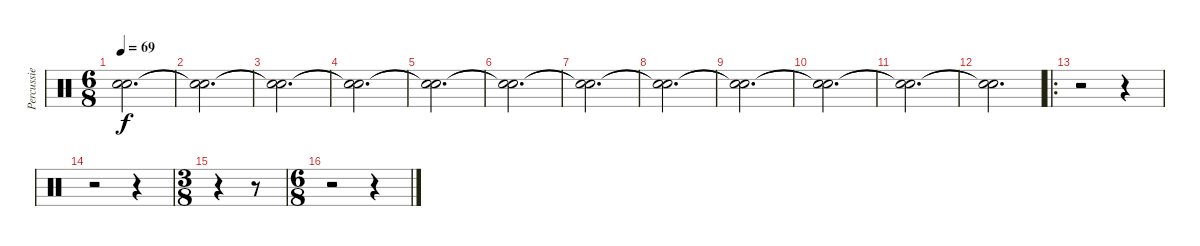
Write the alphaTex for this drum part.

\track ("Percussie" "Percussie") {instrument percussion}
\staff {score}
\articulation defaults
\ts (6 8)
\tempo 69
\clef neutral
\ks c
("Snare (hit)"{t} "Snare (hit)"{t}).2{d dy f} |
("Snare (hit)"{t} "Snare (hit)"{t}).2{d} |
("Snare (hit)"{t} "Snare (hit)"{t}).2{d} |
("Snare (hit)"{t} "Snare (hit)"{t}).2{d} |
("Snare (hit)"{t} "Snare (hit)"{t}).2{d} |
("Snare (hit)"{t} "Snare (hit)"{t}).2{d} |
("Snare (hit)"{t} "Snare (hit)"{t}).2{d} |
("Snare (hit)"{t} "Snare (hit)"{t}).2{d} |
("Snare (hit)"{t} "Snare (hit)"{t}).2{d} |
("Snare (hit)"{t} "Snare (hit)"{t}).2{d} |
("Snare (hit)"{t} "Snare (hit)"{t}).2{d} |
("Snare (hit)"{t} "Snare (hit)"{t}).2{d} |
\ro
r.2 r.4 |
r.2 r.4 |
\ts (3 8)
r.4 r.8 |
\ts (6 8)
r.2 r.4
